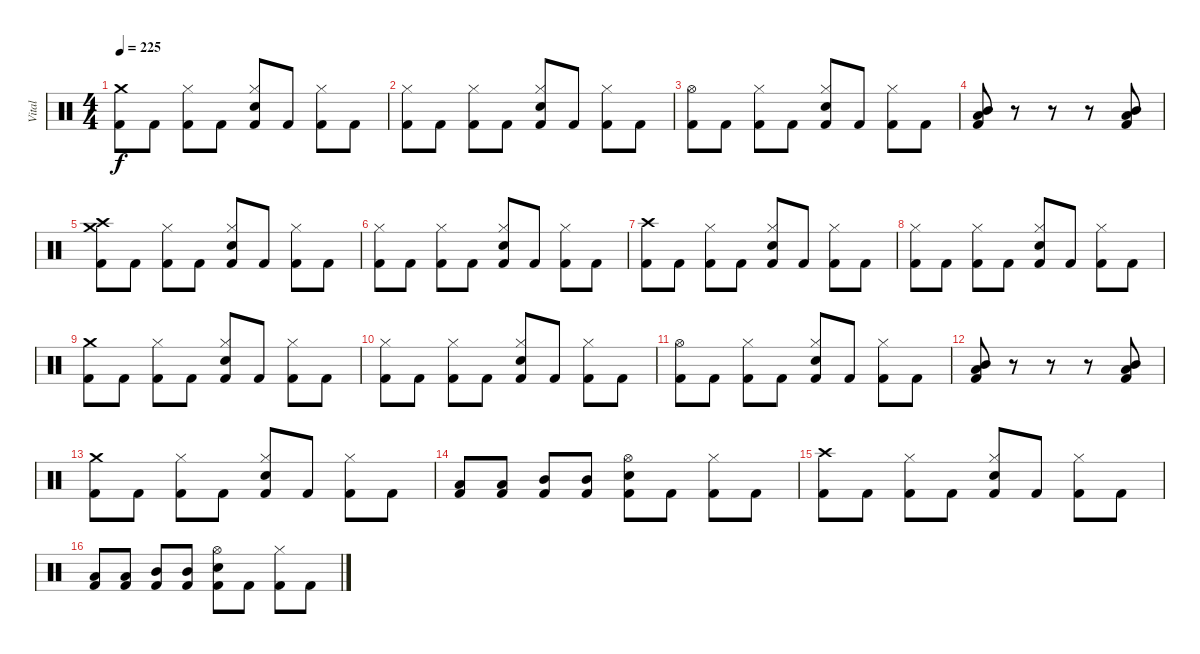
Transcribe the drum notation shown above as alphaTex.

\track ("Vital" "Vital") {instrument percussion}
\staff {score}
\articulation defaults
\ts (4 4)
\tempo 225
\clef neutral
\ks c
("Crash medium (hit)" "Kick (hit) 2").8{dy f} "Kick (hit) 2".8 ("Hi-Hat (closed)" "Kick (hit) 2").8 "Kick (hit) 2".8 ("Hi-Hat (closed)" "Snare (hit) 2" "Kick (hit) 2").8 "Kick (hit) 2".8 ("Hi-Hat (closed)" "Kick (hit) 2").8 "Kick (hit) 2".8 |
("Hi-Hat (closed)" "Kick (hit) 2").8 "Kick (hit) 2".8 ("Hi-Hat (closed)" "Kick (hit) 2").8 "Kick (hit) 2".8 ("Hi-Hat (closed)" "Snare (hit) 2" "Kick (hit) 2").8 "Kick (hit) 2".8 ("Hi-Hat (closed)" "Kick (hit) 2").8 "Kick (hit) 2".8 |
("Hi-Hat (open)" "Kick (hit) 2").8 "Kick (hit) 2".8 ("Hi-Hat (closed)" "Kick (hit) 2").8 "Kick (hit) 2".8 ("Hi-Hat (closed)" "Snare (hit) 2" "Kick (hit) 2").8 "Kick (hit) 2".8 ("Hi-Hat (closed)" "Kick (hit) 2").8 "Kick (hit) 2".8 |
("Low Tom (hit)" "Mid Tom (hit)" "Kick (hit) 2").8 r.8 r.8 r.8 ("Low Tom (hit)" "Mid Tom (hit)" "Kick (hit) 2").8 |
("Crash medium (hit)" "Crash high (hit)" "Kick (hit) 2").8 "Kick (hit) 2".8 ("Hi-Hat (closed)" "Kick (hit) 2").8 "Kick (hit) 2".8 ("Hi-Hat (closed)" "Snare (hit) 2" "Kick (hit) 2").8 "Kick (hit) 2".8 ("Hi-Hat (closed)" "Kick (hit) 2").8 "Kick (hit) 2".8 |
("Hi-Hat (closed)" "Kick (hit) 2").8 "Kick (hit) 2".8 ("Hi-Hat (closed)" "Kick (hit) 2").8 "Kick (hit) 2".8 ("Hi-Hat (closed)" "Snare (hit) 2" "Kick (hit) 2").8 "Kick (hit) 2".8 ("Hi-Hat (closed)" "Kick (hit) 2").8 "Kick (hit) 2".8 |
("Crash high (hit)" "Kick (hit) 2").8 "Kick (hit) 2".8 ("Hi-Hat (closed)" "Kick (hit) 2").8 "Kick (hit) 2".8 ("Hi-Hat (closed)" "Snare (hit) 2" "Kick (hit) 2").8 "Kick (hit) 2".8 ("Hi-Hat (closed)" "Kick (hit) 2").8 "Kick (hit) 2".8 |
("Hi-Hat (closed)" "Kick (hit) 2").8 "Kick (hit) 2".8 ("Hi-Hat (closed)" "Kick (hit) 2").8 "Kick (hit) 2".8 ("Hi-Hat (closed)" "Snare (hit) 2" "Kick (hit) 2").8 "Kick (hit) 2".8 ("Hi-Hat (closed)" "Kick (hit) 2").8 "Kick (hit) 2".8 |
("Crash medium (hit)" "Kick (hit) 2").8 "Kick (hit) 2".8 ("Hi-Hat (closed)" "Kick (hit) 2").8 "Kick (hit) 2".8 ("Hi-Hat (closed)" "Snare (hit) 2" "Kick (hit) 2").8 "Kick (hit) 2".8 ("Hi-Hat (closed)" "Kick (hit) 2").8 "Kick (hit) 2".8 |
("Hi-Hat (closed)" "Kick (hit) 2").8 "Kick (hit) 2".8 ("Hi-Hat (closed)" "Kick (hit) 2").8 "Kick (hit) 2".8 ("Hi-Hat (closed)" "Snare (hit) 2" "Kick (hit) 2").8 "Kick (hit) 2".8 ("Hi-Hat (closed)" "Kick (hit) 2").8 "Kick (hit) 2".8 |
("Hi-Hat (open)" "Kick (hit) 2").8 "Kick (hit) 2".8 ("Hi-Hat (closed)" "Kick (hit) 2").8 "Kick (hit) 2".8 ("Hi-Hat (closed)" "Snare (hit) 2" "Kick (hit) 2").8 "Kick (hit) 2".8 ("Hi-Hat (closed)" "Kick (hit) 2").8 "Kick (hit) 2".8 |
("Low Tom (hit)" "Mid Tom (hit)" "Kick (hit) 2").8 r.8 r.8 r.8 ("Low Tom (hit)" "Mid Tom (hit)" "Kick (hit) 2").8 |
("Crash medium (hit)" "Kick (hit) 2").8 "Kick (hit) 2".8 ("Hi-Hat (closed)" "Kick (hit) 2").8 "Kick (hit) 2".8 ("Hi-Hat (closed)" "Snare (hit) 2" "Kick (hit) 2").8 "Kick (hit) 2".8 ("Hi-Hat (closed)" "Kick (hit) 2").8 "Kick (hit) 2".8 |
("Low Tom (hit)" "Kick (hit) 2").8 ("Low Tom (hit)" "Kick (hit) 2").8 ("Mid Tom (hit)" "Kick (hit) 2").8 ("Mid Tom (hit)" "Kick (hit) 2").8 ("Hi-Hat (open)" "Snare (hit) 2" "Kick (hit) 2").8 "Kick (hit) 2".8 ("Hi-Hat (closed)" "Kick (hit) 2").8 "Kick (hit) 2".8 |
("Crash high (hit)" "Kick (hit) 2").8 "Kick (hit) 2".8 ("Hi-Hat (closed)" "Kick (hit) 2").8 "Kick (hit) 2".8 ("Hi-Hat (closed)" "Snare (hit) 2" "Kick (hit) 2").8 "Kick (hit) 2".8 ("Hi-Hat (closed)" "Kick (hit) 2").8 "Kick (hit) 2".8 |
("Low Tom (hit)" "Kick (hit) 2").8 ("Low Tom (hit)" "Kick (hit) 2").8 ("Mid Tom (hit)" "Kick (hit) 2").8 ("Mid Tom (hit)" "Kick (hit) 2").8 ("Hi-Hat (open)" "Snare (hit) 2" "Kick (hit) 2").8 "Kick (hit) 2".8 ("Hi-Hat (closed)" "Kick (hit) 2").8 "Kick (hit) 2".8
